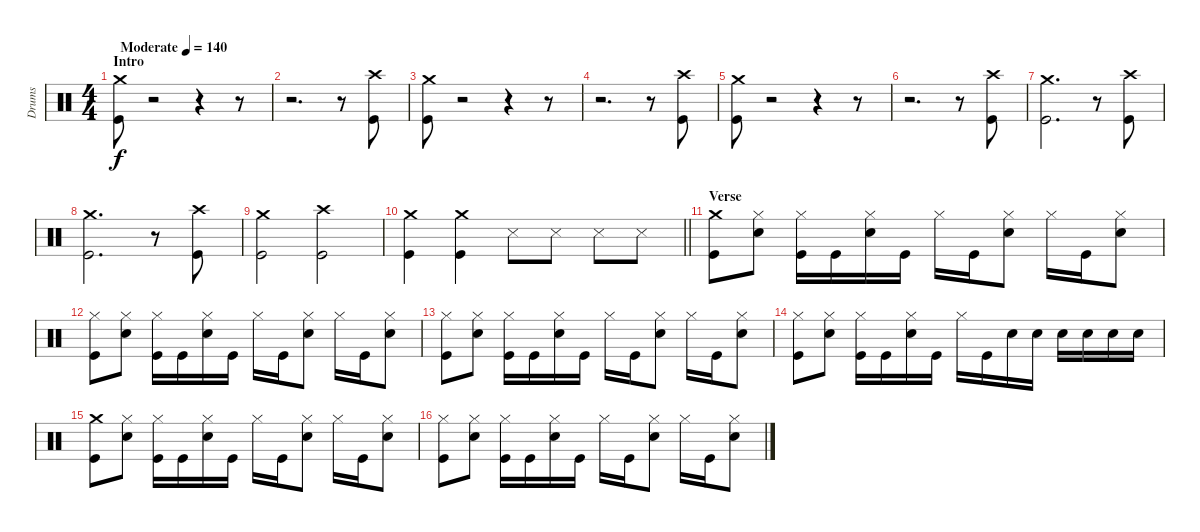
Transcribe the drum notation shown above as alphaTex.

\track ("Drums" "Drums") {instrument percussion}
\staff {score}
\articulation defaults
\ts (4 4)
\section ("" "Intro")
\tempo (140 "Moderate")
\clef neutral
\ks c
("Crash medium (hit)" "Kick (hit)").8{dy f} r.2 r.4 r.8 |
r.2{d} r.8 ("Crash high (hit)" "Kick (hit)").8 |
("Crash medium (hit)" "Kick (hit)").8 r.2 r.4 r.8 |
r.2{d} r.8 ("Crash high (hit)" "Kick (hit)").8 |
("Crash medium (hit)" "Kick (hit)").8 r.2 r.4 r.8 |
r.2{d} r.8 ("Crash high (hit)" "Kick (hit)").8 |
("Crash medium (hit)" "Kick (hit)").2{d} r.8 ("Crash high (hit)" "Kick (hit)").8 |
("Crash medium (hit)" "Kick (hit)").2{d} r.8 ("Crash high (hit)" "Kick (hit)").8 |
("Crash medium (hit)" "Kick (hit)").2 ("Crash high (hit)" "Kick (hit)").2 |
\barLineRight lightlight
("Crash medium (hit)" "Kick (hit)").4 ("Crash medium (hit)" "Kick (hit)").4 "Snare (side stick) 3".8 "Snare (side stick) 3".8 "Snare (side stick) 3".8 "Snare (side stick) 3".8 |
\section ("" "Verse")
("Crash medium (hit)" "Kick (hit)").8 ("Hi-Hat (closed)" "Snare (hit) 2").8 ("Hi-Hat (closed)" "Kick (hit)").16 "Kick (hit)".16 ("Hi-Hat (closed)" "Snare (hit) 2").16 "Kick (hit)".16 "Hi-Hat (closed)".16 "Kick (hit)".16 ("Hi-Hat (closed)" "Snare (hit) 2").8 "Hi-Hat (closed)".16 "Kick (hit)".16 ("Hi-Hat (closed)" "Snare (hit) 2").8 |
("Hi-Hat (closed)" "Kick (hit)").8 ("Hi-Hat (closed)" "Snare (hit) 2").8 ("Hi-Hat (closed)" "Kick (hit)").16 "Kick (hit)".16 ("Hi-Hat (closed)" "Snare (hit) 2").16 "Kick (hit)".16 "Hi-Hat (closed)".16 "Kick (hit)".16 ("Hi-Hat (closed)" "Snare (hit) 2").8 "Hi-Hat (closed)".16 "Kick (hit)".16 ("Hi-Hat (closed)" "Snare (hit) 2").8 |
("Hi-Hat (closed)" "Kick (hit)").8 ("Hi-Hat (closed)" "Snare (hit) 2").8 ("Hi-Hat (closed)" "Kick (hit)").16 "Kick (hit)".16 ("Hi-Hat (closed)" "Snare (hit) 2").16 "Kick (hit)".16 "Hi-Hat (closed)".16 "Kick (hit)".16 ("Hi-Hat (closed)" "Snare (hit) 2").8 "Hi-Hat (closed)".16 "Kick (hit)".16 ("Hi-Hat (closed)" "Snare (hit) 2").8 |
("Hi-Hat (closed)" "Kick (hit)").8 ("Hi-Hat (closed)" "Snare (hit) 2").8 ("Hi-Hat (closed)" "Kick (hit)").16 "Kick (hit)".16 ("Hi-Hat (closed)" "Snare (hit) 2").16 "Kick (hit)".16 "Hi-Hat (closed)".16 "Kick (hit)".16 "Snare (hit) 2".16 "Snare (hit) 2".16 "Snare (hit) 2".16 "Snare (hit) 2".16 "Snare (hit) 2".16 "Snare (hit) 2".16 |
("Crash medium (hit)" "Kick (hit)").8 ("Hi-Hat (closed)" "Snare (hit) 2").8 ("Hi-Hat (closed)" "Kick (hit)").16 "Kick (hit)".16 ("Hi-Hat (closed)" "Snare (hit) 2").16 "Kick (hit)".16 "Hi-Hat (closed)".16 "Kick (hit)".16 ("Hi-Hat (closed)" "Snare (hit) 2").8 "Hi-Hat (closed)".16 "Kick (hit)".16 ("Hi-Hat (closed)" "Snare (hit) 2").8 |
("Hi-Hat (closed)" "Kick (hit)").8 ("Hi-Hat (closed)" "Snare (hit) 2").8 ("Hi-Hat (closed)" "Kick (hit)").16 "Kick (hit)".16 ("Hi-Hat (closed)" "Snare (hit) 2").16 "Kick (hit)".16 "Hi-Hat (closed)".16 "Kick (hit)".16 ("Hi-Hat (closed)" "Snare (hit) 2").8 "Hi-Hat (closed)".16 "Kick (hit)".16 ("Hi-Hat (closed)" "Snare (hit) 2").8
